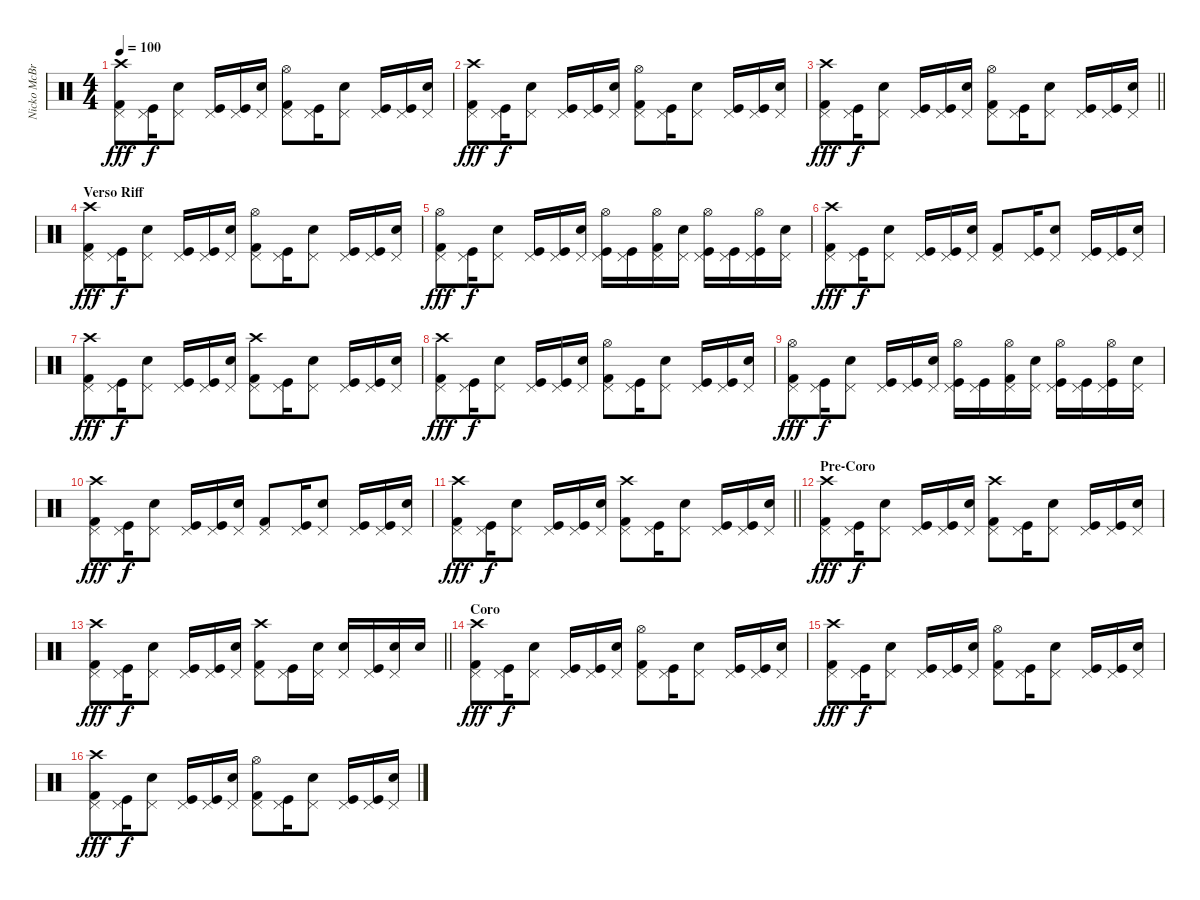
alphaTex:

\track ("Nicko McBrain" "Nicko McBr") {instrument percussion}
\staff {score}
\articulation defaults
\ts (4 4)
\tempo 100
\clef neutral
\ks c
("Kick (hit) 2" "Pedal Hi-Hat (hit)" "Crash high (hit)").8{dy fff} ("Kick (hit)" "Pedal Hi-Hat (hit)").16{dy f} ("Snare (hit) 2" "Pedal Hi-Hat (hit)").8 ("Kick (hit)" "Pedal Hi-Hat (hit)").16 ("Kick (hit)" "Pedal Hi-Hat (hit)").16 ("Snare (hit) 2" "Pedal Hi-Hat (hit)").16 ("Kick (hit) 2" "Pedal Hi-Hat (hit)" "Hi-Hat (open)").8 ("Kick (hit)" "Pedal Hi-Hat (hit)").16 ("Snare (hit) 2" "Pedal Hi-Hat (hit)").8 ("Kick (hit)" "Pedal Hi-Hat (hit)").16 ("Kick (hit)" "Pedal Hi-Hat (hit)").16 ("Snare (hit) 2" "Pedal Hi-Hat (hit)").16 |
("Kick (hit) 2" "Pedal Hi-Hat (hit)" "Crash high (hit)").8{dy fff} ("Kick (hit)" "Pedal Hi-Hat (hit)").16{dy f} ("Snare (hit) 2" "Pedal Hi-Hat (hit)").8 ("Kick (hit)" "Pedal Hi-Hat (hit)").16 ("Kick (hit)" "Pedal Hi-Hat (hit)").16 ("Snare (hit) 2" "Pedal Hi-Hat (hit)").16 ("Kick (hit) 2" "Pedal Hi-Hat (hit)" "Hi-Hat (open)").8 ("Kick (hit)" "Pedal Hi-Hat (hit)").16 ("Snare (hit) 2" "Pedal Hi-Hat (hit)").8 ("Kick (hit)" "Pedal Hi-Hat (hit)").16 ("Kick (hit)" "Pedal Hi-Hat (hit)").16 ("Snare (hit) 2" "Pedal Hi-Hat (hit)").16 |
\barLineRight lightlight
("Kick (hit) 2" "Pedal Hi-Hat (hit)" "Crash high (hit)").8{dy fff} ("Kick (hit)" "Pedal Hi-Hat (hit)").16{dy f} ("Snare (hit) 2" "Pedal Hi-Hat (hit)").8 ("Kick (hit)" "Pedal Hi-Hat (hit)").16 ("Kick (hit)" "Pedal Hi-Hat (hit)").16 ("Snare (hit) 2" "Pedal Hi-Hat (hit)").16 ("Kick (hit) 2" "Pedal Hi-Hat (hit)" "Hi-Hat (open)").8 ("Kick (hit)" "Pedal Hi-Hat (hit)").16 ("Snare (hit) 2" "Pedal Hi-Hat (hit)").8 ("Kick (hit)" "Pedal Hi-Hat (hit)").16 ("Kick (hit)" "Pedal Hi-Hat (hit)").16 ("Snare (hit) 2" "Pedal Hi-Hat (hit)").16 |
\section ("" "Verso Riff")
("Kick (hit) 2" "Pedal Hi-Hat (hit)" "Crash high (hit)").8{dy fff} ("Kick (hit)" "Pedal Hi-Hat (hit)").16{dy f} ("Snare (hit) 2" "Pedal Hi-Hat (hit)").8 ("Kick (hit)" "Pedal Hi-Hat (hit)").16 ("Kick (hit)" "Pedal Hi-Hat (hit)").16 ("Snare (hit) 2" "Pedal Hi-Hat (hit)").16 ("Kick (hit) 2" "Pedal Hi-Hat (hit)" "Hi-Hat (open)").8 ("Kick (hit)" "Pedal Hi-Hat (hit)").16 ("Snare (hit) 2" "Pedal Hi-Hat (hit)").8 ("Kick (hit)" "Pedal Hi-Hat (hit)").16 ("Kick (hit)" "Pedal Hi-Hat (hit)").16 ("Snare (hit) 2" "Pedal Hi-Hat (hit)").16 |
("Kick (hit) 2" "Pedal Hi-Hat (hit)" "Hi-Hat (open)").8{dy fff} ("Kick (hit)" "Pedal Hi-Hat (hit)").16{dy f} ("Snare (hit) 2" "Pedal Hi-Hat (hit)").8 ("Kick (hit)" "Pedal Hi-Hat (hit)").16 ("Kick (hit)" "Pedal Hi-Hat (hit)").16 ("Snare (hit) 2" "Pedal Hi-Hat (hit)").16 ("Kick (hit)" "Pedal Hi-Hat (hit)" "Hi-Hat (open)").16 ("Kick (hit)" "Pedal Hi-Hat (hit)").16 ("Kick (hit) 2" "Pedal Hi-Hat (hit)" "Hi-Hat (open)").16 ("Snare (hit) 2" "Pedal Hi-Hat (hit)").16 ("Kick (hit)" "Pedal Hi-Hat (hit)" "Hi-Hat (open)").16 ("Kick (hit)" "Pedal Hi-Hat (hit)").16 ("Kick (hit)" "Pedal Hi-Hat (hit)" "Hi-Hat (open)").16 ("Snare (hit) 2" "Pedal Hi-Hat (hit)").16 |
("Kick (hit) 2" "Pedal Hi-Hat (hit)" "Crash high (hit)").8{dy fff} ("Kick (hit)" "Pedal Hi-Hat (hit)").16{dy f} ("Snare (hit) 2" "Pedal Hi-Hat (hit)").8 ("Kick (hit)" "Pedal Hi-Hat (hit)").16 ("Kick (hit)" "Pedal Hi-Hat (hit)").16 ("Snare (hit) 2" "Pedal Hi-Hat (hit)").16 ("Kick (hit) 2" "Pedal Hi-Hat (hit)").8 ("Kick (hit)" "Pedal Hi-Hat (hit)").16 ("Snare (hit) 2" "Pedal Hi-Hat (hit)").8 ("Kick (hit)" "Pedal Hi-Hat (hit)").16 ("Kick (hit)" "Pedal Hi-Hat (hit)").16 ("Snare (hit) 2" "Pedal Hi-Hat (hit)").16 |
("Kick (hit) 2" "Pedal Hi-Hat (hit)" "Crash high (hit)").8{dy fff} ("Kick (hit)" "Pedal Hi-Hat (hit)").16{dy f} ("Snare (hit) 2" "Pedal Hi-Hat (hit)").8 ("Kick (hit)" "Pedal Hi-Hat (hit)").16 ("Kick (hit)" "Pedal Hi-Hat (hit)").16 ("Snare (hit) 2" "Pedal Hi-Hat (hit)").16 ("Kick (hit) 2" "Pedal Hi-Hat (hit)" "Crash high (hit)").8 ("Kick (hit)" "Pedal Hi-Hat (hit)").16 ("Snare (hit) 2" "Pedal Hi-Hat (hit)").8 ("Kick (hit)" "Pedal Hi-Hat (hit)").16 ("Kick (hit)" "Pedal Hi-Hat (hit)").16 ("Snare (hit) 2" "Pedal Hi-Hat (hit)").16 |
("Kick (hit) 2" "Pedal Hi-Hat (hit)" "Crash high (hit)").8{dy fff} ("Kick (hit)" "Pedal Hi-Hat (hit)").16{dy f} ("Snare (hit) 2" "Pedal Hi-Hat (hit)").8 ("Kick (hit)" "Pedal Hi-Hat (hit)").16 ("Kick (hit)" "Pedal Hi-Hat (hit)").16 ("Snare (hit) 2" "Pedal Hi-Hat (hit)").16 ("Kick (hit) 2" "Pedal Hi-Hat (hit)" "Hi-Hat (open)").8 ("Kick (hit)" "Pedal Hi-Hat (hit)").16 ("Snare (hit) 2" "Pedal Hi-Hat (hit)").8 ("Kick (hit)" "Pedal Hi-Hat (hit)").16 ("Kick (hit)" "Pedal Hi-Hat (hit)").16 ("Snare (hit) 2" "Pedal Hi-Hat (hit)").16 |
("Kick (hit) 2" "Pedal Hi-Hat (hit)" "Hi-Hat (open)").8{dy fff} ("Kick (hit)" "Pedal Hi-Hat (hit)").16{dy f} ("Snare (hit) 2" "Pedal Hi-Hat (hit)").8 ("Kick (hit)" "Pedal Hi-Hat (hit)").16 ("Kick (hit)" "Pedal Hi-Hat (hit)").16 ("Snare (hit) 2" "Pedal Hi-Hat (hit)").16 ("Kick (hit)" "Pedal Hi-Hat (hit)" "Hi-Hat (open)").16 ("Kick (hit)" "Pedal Hi-Hat (hit)").16 ("Kick (hit) 2" "Pedal Hi-Hat (hit)" "Hi-Hat (open)").16 ("Snare (hit) 2" "Pedal Hi-Hat (hit)").16 ("Kick (hit)" "Pedal Hi-Hat (hit)" "Hi-Hat (open)").16 ("Kick (hit)" "Pedal Hi-Hat (hit)").16 ("Kick (hit)" "Pedal Hi-Hat (hit)" "Hi-Hat (open)").16 ("Snare (hit) 2" "Pedal Hi-Hat (hit)").16 |
("Kick (hit) 2" "Pedal Hi-Hat (hit)" "Crash high (hit)").8{dy fff} ("Kick (hit)" "Pedal Hi-Hat (hit)").16{dy f} ("Snare (hit) 2" "Pedal Hi-Hat (hit)").8 ("Kick (hit)" "Pedal Hi-Hat (hit)").16 ("Kick (hit)" "Pedal Hi-Hat (hit)").16 ("Snare (hit) 2" "Pedal Hi-Hat (hit)").16 ("Kick (hit) 2" "Pedal Hi-Hat (hit)").8 ("Kick (hit)" "Pedal Hi-Hat (hit)").16 ("Snare (hit) 2" "Pedal Hi-Hat (hit)").8 ("Kick (hit)" "Pedal Hi-Hat (hit)").16 ("Kick (hit)" "Pedal Hi-Hat (hit)").16 ("Snare (hit) 2" "Pedal Hi-Hat (hit)").16 |
\barLineRight lightlight
("Kick (hit) 2" "Pedal Hi-Hat (hit)" "Crash high (hit)").8{dy fff} ("Kick (hit)" "Pedal Hi-Hat (hit)").16{dy f} ("Snare (hit) 2" "Pedal Hi-Hat (hit)").8 ("Kick (hit)" "Pedal Hi-Hat (hit)").16 ("Kick (hit)" "Pedal Hi-Hat (hit)").16 ("Snare (hit) 2" "Pedal Hi-Hat (hit)").16 ("Kick (hit) 2" "Pedal Hi-Hat (hit)" "Crash high (hit)").8 ("Kick (hit)" "Pedal Hi-Hat (hit)").16 ("Snare (hit) 2" "Pedal Hi-Hat (hit)").8 ("Kick (hit)" "Pedal Hi-Hat (hit)").16 ("Kick (hit)" "Pedal Hi-Hat (hit)").16 ("Snare (hit) 2" "Pedal Hi-Hat (hit)").16 |
\section ("" "Pre-Coro")
("Kick (hit) 2" "Pedal Hi-Hat (hit)" "Crash high (hit)").8{dy fff} ("Kick (hit)" "Pedal Hi-Hat (hit)").16{dy f} ("Snare (hit) 2" "Pedal Hi-Hat (hit)").8 ("Kick (hit)" "Pedal Hi-Hat (hit)").16 ("Kick (hit)" "Pedal Hi-Hat (hit)").16 ("Snare (hit) 2" "Pedal Hi-Hat (hit)").16 ("Kick (hit) 2" "Pedal Hi-Hat (hit)" "Crash high (hit)").8 ("Kick (hit)" "Pedal Hi-Hat (hit)").16 ("Snare (hit) 2" "Pedal Hi-Hat (hit)").8 ("Kick (hit)" "Pedal Hi-Hat (hit)").16 ("Kick (hit)" "Pedal Hi-Hat (hit)").16 ("Snare (hit) 2" "Pedal Hi-Hat (hit)").16 |
\barLineRight lightlight
("Kick (hit) 2" "Pedal Hi-Hat (hit)" "Crash high (hit)").8{dy fff} ("Kick (hit)" "Pedal Hi-Hat (hit)").16{dy f} ("Snare (hit) 2" "Pedal Hi-Hat (hit)").8 ("Kick (hit)" "Pedal Hi-Hat (hit)").16 ("Kick (hit)" "Pedal Hi-Hat (hit)").16 ("Snare (hit) 2" "Pedal Hi-Hat (hit)").16 ("Kick (hit) 2" "Pedal Hi-Hat (hit)" "Crash high (hit)").8 ("Kick (hit)" "Pedal Hi-Hat (hit)").16 ("Snare (hit) 2" "Pedal Hi-Hat (hit)").16 ("Snare (hit) 2" "Pedal Hi-Hat (hit)").16 ("Kick (hit)" "Pedal Hi-Hat (hit)").16 ("Snare (hit) 2" "Pedal Hi-Hat (hit)").16 "Snare (hit) 2".16 |
\section ("" "Coro")
("Kick (hit) 2" "Pedal Hi-Hat (hit)" "Crash high (hit)").8{dy fff} ("Kick (hit)" "Pedal Hi-Hat (hit)").16{dy f} ("Snare (hit) 2" "Pedal Hi-Hat (hit)").8 ("Kick (hit)" "Pedal Hi-Hat (hit)").16 ("Kick (hit)" "Pedal Hi-Hat (hit)").16 ("Snare (hit) 2" "Pedal Hi-Hat (hit)").16 ("Kick (hit) 2" "Pedal Hi-Hat (hit)" "Hi-Hat (open)").8 ("Kick (hit)" "Pedal Hi-Hat (hit)").16 ("Snare (hit) 2" "Pedal Hi-Hat (hit)").8 ("Kick (hit)" "Pedal Hi-Hat (hit)").16 ("Kick (hit)" "Pedal Hi-Hat (hit)").16 ("Snare (hit) 2" "Pedal Hi-Hat (hit)").16 |
("Kick (hit) 2" "Pedal Hi-Hat (hit)" "Crash high (hit)").8{dy fff} ("Kick (hit)" "Pedal Hi-Hat (hit)").16{dy f} ("Snare (hit) 2" "Pedal Hi-Hat (hit)").8 ("Kick (hit)" "Pedal Hi-Hat (hit)").16 ("Kick (hit)" "Pedal Hi-Hat (hit)").16 ("Snare (hit) 2" "Pedal Hi-Hat (hit)").16 ("Kick (hit) 2" "Pedal Hi-Hat (hit)" "Hi-Hat (open)").8 ("Kick (hit)" "Pedal Hi-Hat (hit)").16 ("Snare (hit) 2" "Pedal Hi-Hat (hit)").8 ("Kick (hit)" "Pedal Hi-Hat (hit)").16 ("Kick (hit)" "Pedal Hi-Hat (hit)").16 ("Snare (hit) 2" "Pedal Hi-Hat (hit)").16 |
("Kick (hit) 2" "Pedal Hi-Hat (hit)" "Crash high (hit)").8{dy fff} ("Kick (hit)" "Pedal Hi-Hat (hit)").16{dy f} ("Snare (hit) 2" "Pedal Hi-Hat (hit)").8 ("Kick (hit)" "Pedal Hi-Hat (hit)").16 ("Kick (hit)" "Pedal Hi-Hat (hit)").16 ("Snare (hit) 2" "Pedal Hi-Hat (hit)").16 ("Kick (hit) 2" "Pedal Hi-Hat (hit)" "Hi-Hat (open)").8 ("Kick (hit)" "Pedal Hi-Hat (hit)").16 ("Snare (hit) 2" "Pedal Hi-Hat (hit)").8 ("Kick (hit)" "Pedal Hi-Hat (hit)").16 ("Kick (hit)" "Pedal Hi-Hat (hit)").16 ("Snare (hit) 2" "Pedal Hi-Hat (hit)").16
